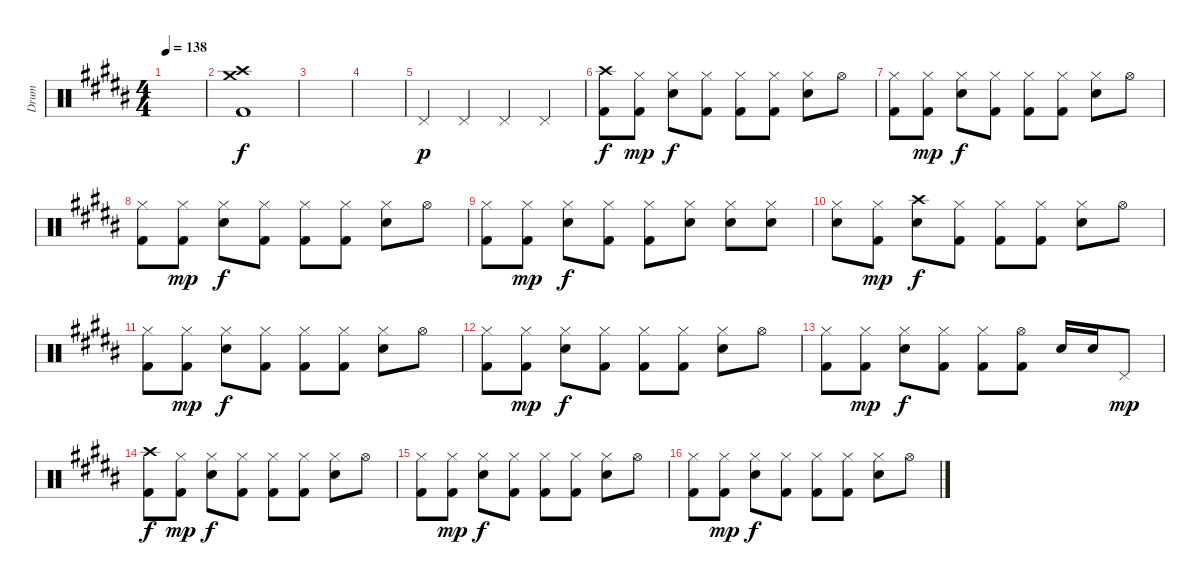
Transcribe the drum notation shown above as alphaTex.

\track ("Drum" "Drum") {instrument percussion}
\staff {score}
\articulation defaults
\ts (4 4)
\tempo 138
\clef neutral
\ks g#minor
|
\ks b
("Crash high (hit)" "Crash medium (hit)" "Kick (hit) 2").1 |
\ks g#minor
|
|
"Pedal Hi-Hat (hit)".4{dy p} "Pedal Hi-Hat (hit)".4 "Pedal Hi-Hat (hit)".4 "Pedal Hi-Hat (hit)".4 |
\ks b
("Crash high (hit)" "Kick (hit) 2").8{dy f} ("Hi-Hat (closed)" "Kick (hit) 2").8{dy mp} ("Hi-Hat (closed)" "Electric Snare (hit)").8{dy f} ("Hi-Hat (closed)" "Kick (hit) 2").8 ("Hi-Hat (closed)" "Kick (hit) 2").8 ("Hi-Hat (closed)" "Kick (hit) 2").8 ("Hi-Hat (closed)" "Electric Snare (hit)").8 "Hi-Hat (open)".8 |
\ks g#minor
("Hi-Hat (closed)" "Kick (hit) 2").8 ("Hi-Hat (closed)" "Kick (hit) 2").8{dy mp} ("Hi-Hat (closed)" "Electric Snare (hit)").8{dy f} ("Hi-Hat (closed)" "Kick (hit) 2").8 ("Hi-Hat (closed)" "Kick (hit) 2").8 ("Hi-Hat (closed)" "Kick (hit) 2").8 ("Hi-Hat (closed)" "Electric Snare (hit)").8 "Hi-Hat (open)".8 |
\ks b
("Hi-Hat (closed)" "Kick (hit) 2").8 ("Hi-Hat (closed)" "Kick (hit) 2").8{dy mp} ("Hi-Hat (closed)" "Electric Snare (hit)").8{dy f} ("Hi-Hat (closed)" "Kick (hit) 2").8 ("Hi-Hat (closed)" "Kick (hit) 2").8 ("Hi-Hat (closed)" "Kick (hit) 2").8 ("Hi-Hat (closed)" "Electric Snare (hit)").8 "Hi-Hat (open)".8 |
\ks g#minor
("Hi-Hat (closed)" "Kick (hit) 2").8 ("Hi-Hat (closed)" "Kick (hit) 2").8{dy mp} ("Hi-Hat (closed)" "Electric Snare (hit)").8{dy f} ("Hi-Hat (closed)" "Kick (hit) 2").8 ("Hi-Hat (closed)" "Kick (hit) 2").8 ("Hi-Hat (closed)" "Electric Snare (hit)").8 ("Hi-Hat (closed)" "Electric Snare (hit)").8 ("Hi-Hat (closed)" "Electric Snare (hit)").8 |
\ks b
("Hi-Hat (closed)" "Electric Snare (hit)").8 ("Hi-Hat (closed)" "Kick (hit) 2").8{dy mp} ("Crash high (hit)" "Electric Snare (hit)").8{dy f} ("Hi-Hat (closed)" "Kick (hit) 2").8 ("Hi-Hat (closed)" "Kick (hit) 2").8 ("Hi-Hat (closed)" "Kick (hit) 2").8 ("Hi-Hat (closed)" "Electric Snare (hit)").8 "Hi-Hat (open)".8 |
\ks g#minor
("Hi-Hat (closed)" "Kick (hit) 2").8 ("Hi-Hat (closed)" "Kick (hit) 2").8{dy mp} ("Hi-Hat (closed)" "Electric Snare (hit)").8{dy f} ("Hi-Hat (closed)" "Kick (hit) 2").8 ("Hi-Hat (closed)" "Kick (hit) 2").8 ("Hi-Hat (closed)" "Kick (hit) 2").8 ("Hi-Hat (closed)" "Electric Snare (hit)").8 "Hi-Hat (open)".8 |
\ks b
("Hi-Hat (closed)" "Kick (hit) 2").8 ("Hi-Hat (closed)" "Kick (hit) 2").8{dy mp} ("Hi-Hat (closed)" "Electric Snare (hit)").8{dy f} ("Hi-Hat (closed)" "Kick (hit) 2").8 ("Hi-Hat (closed)" "Kick (hit) 2").8 ("Hi-Hat (closed)" "Kick (hit) 2").8 ("Hi-Hat (closed)" "Electric Snare (hit)").8 "Hi-Hat (open)".8 |
\ks g#minor
("Hi-Hat (closed)" "Kick (hit) 2").8 ("Hi-Hat (closed)" "Kick (hit) 2").8{dy mp} ("Hi-Hat (closed)" "Electric Snare (hit)").8{dy f} ("Hi-Hat (closed)" "Kick (hit) 2").8 ("Hi-Hat (closed)" "Kick (hit) 2").8 ("Hi-Hat (open)" "Kick (hit) 2").8 "Electric Snare (hit)".16 "Electric Snare (hit)".16 "Pedal Hi-Hat (hit)".8{dy mp} |
\ks b
("Crash high (hit)" "Kick (hit) 2").8{dy f} ("Hi-Hat (closed)" "Kick (hit) 2").8{dy mp} ("Hi-Hat (closed)" "Electric Snare (hit)").8{dy f} ("Hi-Hat (closed)" "Kick (hit) 2").8 ("Hi-Hat (closed)" "Kick (hit) 2").8 ("Hi-Hat (closed)" "Kick (hit) 2").8 ("Hi-Hat (closed)" "Electric Snare (hit)").8 "Hi-Hat (open)".8 |
\ks g#minor
("Hi-Hat (closed)" "Kick (hit) 2").8 ("Hi-Hat (closed)" "Kick (hit) 2").8{dy mp} ("Hi-Hat (closed)" "Electric Snare (hit)").8{dy f} ("Hi-Hat (closed)" "Kick (hit) 2").8 ("Hi-Hat (closed)" "Kick (hit) 2").8 ("Hi-Hat (closed)" "Kick (hit) 2").8 ("Hi-Hat (closed)" "Electric Snare (hit)").8 "Hi-Hat (open)".8 |
\ks b
("Hi-Hat (closed)" "Kick (hit) 2").8 ("Hi-Hat (closed)" "Kick (hit) 2").8{dy mp} ("Hi-Hat (closed)" "Electric Snare (hit)").8{dy f} ("Hi-Hat (closed)" "Kick (hit) 2").8 ("Hi-Hat (closed)" "Kick (hit) 2").8 ("Hi-Hat (closed)" "Kick (hit) 2").8 ("Hi-Hat (closed)" "Electric Snare (hit)").8 "Hi-Hat (open)".8
